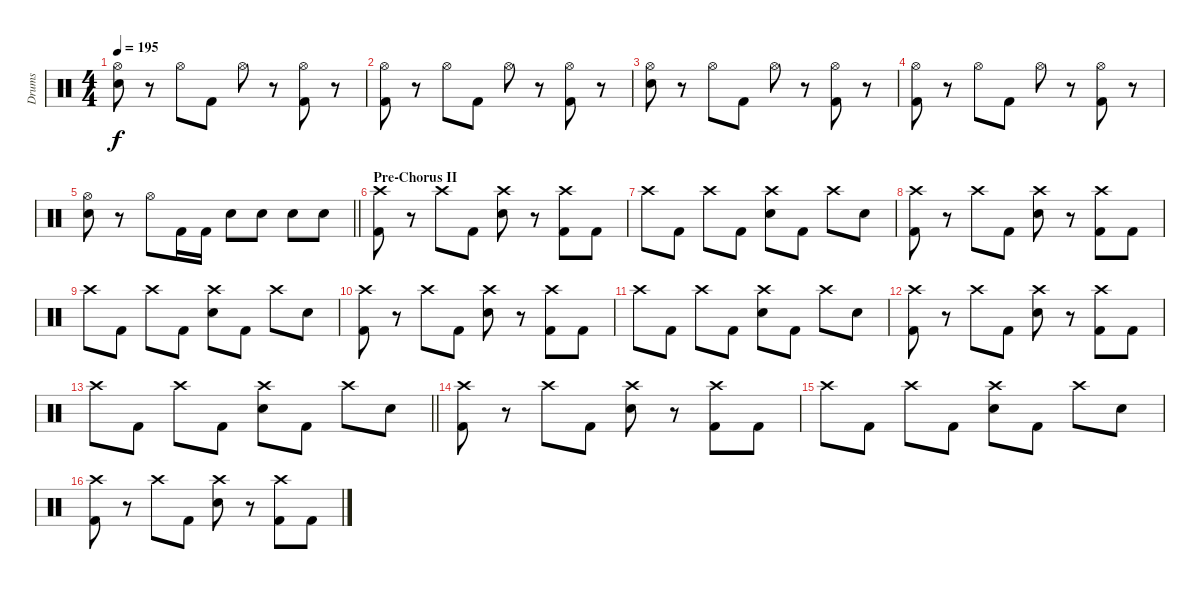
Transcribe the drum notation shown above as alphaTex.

\track ("Drums" "Drums") {instrument percussion}
\staff {score}
\articulation defaults
\ts (4 4)
\tempo 195
\clef neutral
\ks c
("Hi-Hat (open)" "Snare (hit) 2").8{dy f} r.8 "Hi-Hat (open)".8 "Kick (hit) 2".8 "Hi-Hat (open)".8 r.8 ("Hi-Hat (open)" "Kick (hit) 2").8 r.8 |
("Hi-Hat (open)" "Kick (hit) 2").8 r.8 "Hi-Hat (open)".8 "Kick (hit) 2".8 "Hi-Hat (open)".8 r.8 ("Hi-Hat (open)" "Kick (hit) 2").8 r.8 |
("Hi-Hat (open)" "Snare (hit) 2").8 r.8 "Hi-Hat (open)".8 "Kick (hit) 2".8 "Hi-Hat (open)".8 r.8 ("Hi-Hat (open)" "Kick (hit) 2").8 r.8 |
("Hi-Hat (open)" "Kick (hit) 2").8 r.8 "Hi-Hat (open)".8 "Kick (hit) 2".8 "Hi-Hat (open)".8 r.8 ("Hi-Hat (open)" "Kick (hit) 2").8 r.8 |
\barLineRight lightlight
("Hi-Hat (open)" "Snare (hit) 2").8 r.8 "Hi-Hat (open)".8 "Kick (hit) 2".16 "Kick (hit) 2".16 "Snare (hit) 2".8 "Snare (hit) 2".8 "Snare (hit) 2".8 "Snare (hit) 2".8 |
\section ("" "Pre-Chorus II")
("Crash high (hit)" "Kick (hit) 2").8 r.8 "Crash high (hit)".8 "Kick (hit) 2".8 ("Crash high (hit)" "Snare (hit) 2").8 r.8 ("Crash high (hit)" "Kick (hit) 2").8 "Kick (hit) 2".8 |
"Crash high (hit)".8 "Kick (hit) 2".8 "Crash high (hit)".8 "Kick (hit) 2".8 ("Crash high (hit)" "Snare (hit) 2").8 "Kick (hit) 2".8 "Crash high (hit)".8 "Snare (hit) 2".8 |
("Crash high (hit)" "Kick (hit) 2").8 r.8 "Crash high (hit)".8 "Kick (hit) 2".8 ("Crash high (hit)" "Snare (hit) 2").8 r.8 ("Crash high (hit)" "Kick (hit) 2").8 "Kick (hit) 2".8 |
"Crash high (hit)".8 "Kick (hit) 2".8 "Crash high (hit)".8 "Kick (hit) 2".8 ("Crash high (hit)" "Snare (hit) 2").8 "Kick (hit) 2".8 "Crash high (hit)".8 "Snare (hit) 2".8 |
("Crash high (hit)" "Kick (hit) 2").8 r.8 "Crash high (hit)".8 "Kick (hit) 2".8 ("Crash high (hit)" "Snare (hit) 2").8 r.8 ("Crash high (hit)" "Kick (hit) 2").8 "Kick (hit) 2".8 |
"Crash high (hit)".8 "Kick (hit) 2".8 "Crash high (hit)".8 "Kick (hit) 2".8 ("Crash high (hit)" "Snare (hit) 2").8 "Kick (hit) 2".8 "Crash high (hit)".8 "Snare (hit) 2".8 |
("Crash high (hit)" "Kick (hit) 2").8 r.8 "Crash high (hit)".8 "Kick (hit) 2".8 ("Crash high (hit)" "Snare (hit) 2").8 r.8 ("Crash high (hit)" "Kick (hit) 2").8 "Kick (hit) 2".8 |
\barLineRight lightlight "Crash high (hit)".8 "Kick (hit) 2".8 "Crash high (hit)".8 "Kick (hit) 2".8
("Crash high (hit)" "Snare (hit) 2").8 "Kick (hit) 2".8 "Crash high (hit)".8 "Snare (hit) 2".8 |
\section ("" "")
("Crash high (hit)" "Kick (hit) 2").8 r.8 "Crash high (hit)".8 "Kick (hit) 2".8 ("Crash high (hit)" "Snare (hit) 2").8 r.8 ("Crash high (hit)" "Kick (hit) 2").8 "Kick (hit) 2".8 |
"Crash high (hit)".8 "Kick (hit) 2".8 "Crash high (hit)".8 "Kick (hit) 2".8 ("Crash high (hit)" "Snare (hit) 2").8 "Kick (hit) 2".8 "Crash high (hit)".8 "Snare (hit) 2".8 |
("Crash high (hit)" "Kick (hit) 2").8 r.8 "Crash high (hit)".8 "Kick (hit) 2".8 ("Crash high (hit)" "Snare (hit) 2").8 r.8 ("Crash high (hit)" "Kick (hit) 2").8 "Kick (hit) 2".8
